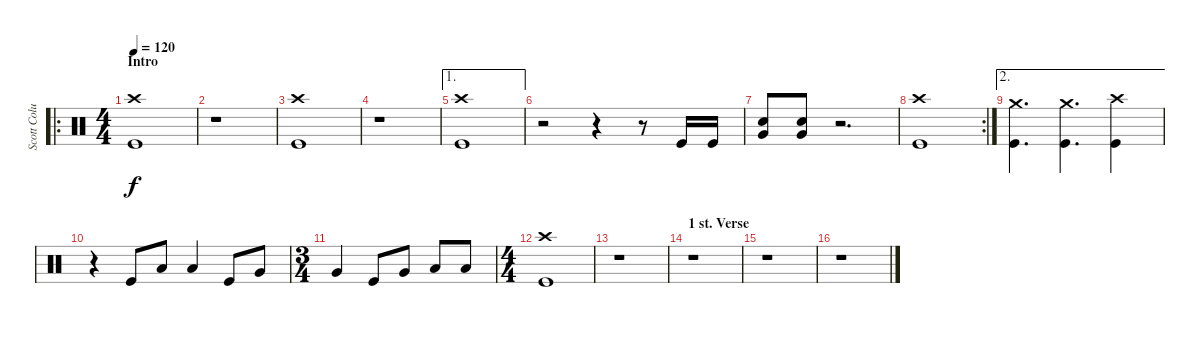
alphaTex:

\track ("Scott Columbus" "Scott Colu") {instrument percussion}
\staff {score}
\articulation defaults
\ro
\ts (4 4)
\section ("" "Intro")
\tempo 120
\clef neutral
\ks c
("Crash high (hit)" "Kick (hit)").1{dy f} |
r.1 |
("Crash high (hit)" "Kick (hit)").1 |
r.1 |
\ae 1
("Crash high (hit)" "Kick (hit)").1 |
r.2 r.4 r.8 "Kick (hit)".16 "Kick (hit)".16 |
("Very Low Tom (hit)" "Snare (hit) 2").8 ("Very Low Tom (hit)" "Snare (hit) 2").8 r.2{d} |
\rc 2
("Crash high (hit)" "Kick (hit)").1 |
\ae 2
("Crash medium (hit)" "Kick (hit)").4{d} ("Crash medium (hit)" "Kick (hit)").4{d} ("Crash high (hit)" "Kick (hit)").4 |
r.4 "Kick (hit)".8 "Low Tom (hit)".8 "Low Tom (hit)".4 "Kick (hit)".8 "Very Low Tom (hit)".8 |
\ts (3 4)
"Very Low Tom (hit)".4 "Kick (hit)".8 "Very Low Tom (hit)".8 "Low Floor Tom (hit)".8 "Low Floor Tom (hit)".8 |
\ts (4 4)
("Crash high (hit)" "Kick (hit)").1 |
r.1 |
\section ("" "1 st. Verse")
r.1 |
r.1 |
r.1
